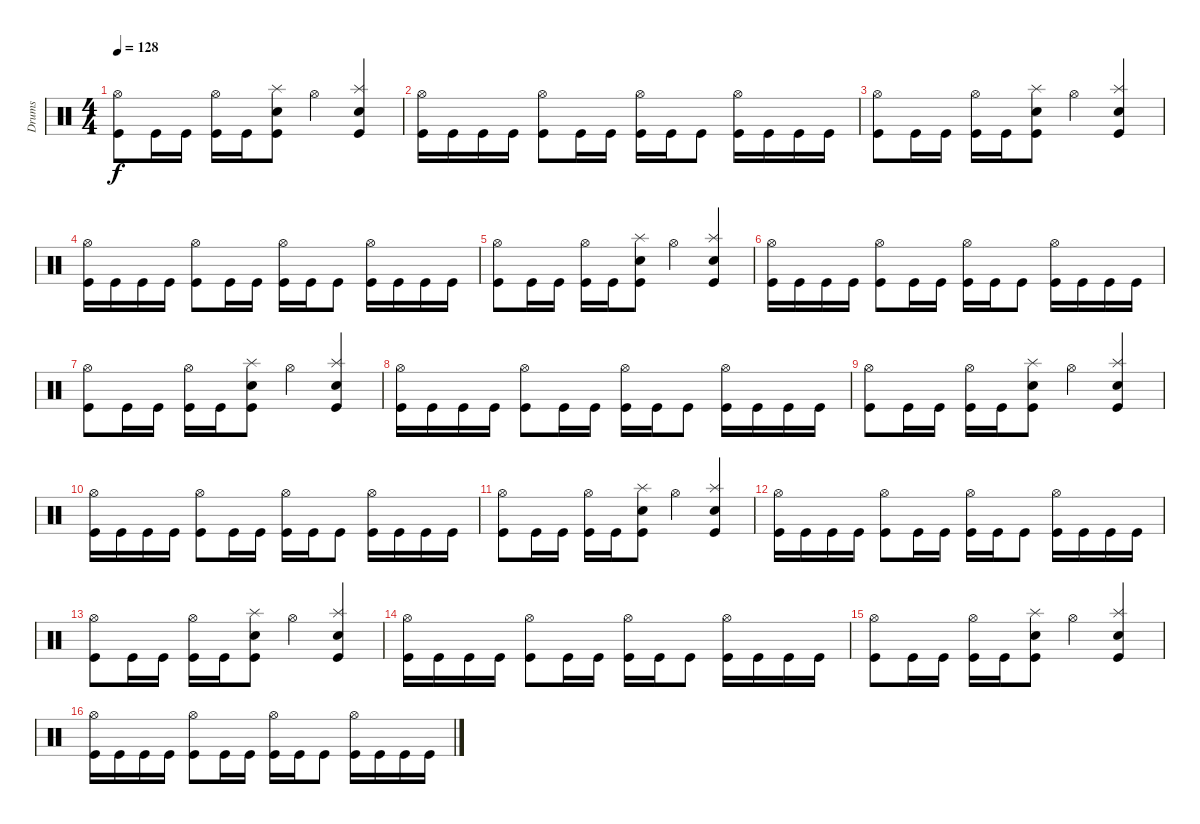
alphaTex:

\track ("Drums" "Drums") {instrument percussion}
\staff {score}
\articulation defaults
\ts (4 4)
\tempo 128
\clef neutral
\ks c
("Hi-Hat (open)" "Kick (hit)").8{dy f} "Kick (hit)".16 "Kick (hit)".16 ("Hi-Hat (open)" "Kick (hit)").16 "Kick (hit)".16 ("Splash (hit)" "Snare (hit) 2" "Kick (hit)").8 "Hi-Hat (open)".4 ("Splash (hit)" "Snare (hit) 2" "Kick (hit)").4 |
("Hi-Hat (open)" "Kick (hit)").16 "Kick (hit)".16 "Kick (hit)".16 "Kick (hit)".16 ("Hi-Hat (open)" "Kick (hit)").8 "Kick (hit)".16 "Kick (hit)".16 ("Hi-Hat (open)" "Kick (hit)").16 "Kick (hit)".16 "Kick (hit)".8 ("Hi-Hat (open)" "Kick (hit)").16 "Kick (hit)".16 "Kick (hit)".16 "Kick (hit)".16 |
("Hi-Hat (open)" "Kick (hit)").8 "Kick (hit)".16 "Kick (hit)".16 ("Hi-Hat (open)" "Kick (hit)").16 "Kick (hit)".16 ("Splash (hit)" "Snare (hit) 2" "Kick (hit)").8 "Hi-Hat (open)".4 ("Splash (hit)" "Snare (hit) 2" "Kick (hit)").4 |
("Hi-Hat (open)" "Kick (hit)").16 "Kick (hit)".16 "Kick (hit)".16 "Kick (hit)".16 ("Hi-Hat (open)" "Kick (hit)").8 "Kick (hit)".16 "Kick (hit)".16 ("Hi-Hat (open)" "Kick (hit)").16 "Kick (hit)".16 "Kick (hit)".8 ("Hi-Hat (open)" "Kick (hit)").16 "Kick (hit)".16 "Kick (hit)".16 "Kick (hit)".16 |
("Hi-Hat (open)" "Kick (hit)").8 "Kick (hit)".16 "Kick (hit)".16 ("Hi-Hat (open)" "Kick (hit)").16 "Kick (hit)".16 ("Splash (hit)" "Snare (hit) 2" "Kick (hit)").8 "Hi-Hat (open)".4 ("Splash (hit)" "Snare (hit) 2" "Kick (hit)").4 |
("Hi-Hat (open)" "Kick (hit)").16 "Kick (hit)".16 "Kick (hit)".16 "Kick (hit)".16 ("Hi-Hat (open)" "Kick (hit)").8 "Kick (hit)".16 "Kick (hit)".16 ("Hi-Hat (open)" "Kick (hit)").16 "Kick (hit)".16 "Kick (hit)".8 ("Hi-Hat (open)" "Kick (hit)").16 "Kick (hit)".16 "Kick (hit)".16 "Kick (hit)".16 |
("Hi-Hat (open)" "Kick (hit)").8 "Kick (hit)".16 "Kick (hit)".16 ("Hi-Hat (open)" "Kick (hit)").16 "Kick (hit)".16 ("Splash (hit)" "Snare (hit) 2" "Kick (hit)").8 "Hi-Hat (open)".4 ("Splash (hit)" "Snare (hit) 2" "Kick (hit)").4 |
("Hi-Hat (open)" "Kick (hit)").16 "Kick (hit)".16 "Kick (hit)".16 "Kick (hit)".16 ("Hi-Hat (open)" "Kick (hit)").8 "Kick (hit)".16 "Kick (hit)".16 ("Hi-Hat (open)" "Kick (hit)").16 "Kick (hit)".16 "Kick (hit)".8 ("Hi-Hat (open)" "Kick (hit)").16 "Kick (hit)".16 "Kick (hit)".16 "Kick (hit)".16 |
("Hi-Hat (open)" "Kick (hit)").8 "Kick (hit)".16 "Kick (hit)".16 ("Hi-Hat (open)" "Kick (hit)").16 "Kick (hit)".16 ("Splash (hit)" "Snare (hit) 2" "Kick (hit)").8 "Hi-Hat (open)".4 ("Splash (hit)" "Snare (hit) 2" "Kick (hit)").4 |
("Hi-Hat (open)" "Kick (hit)").16 "Kick (hit)".16 "Kick (hit)".16 "Kick (hit)".16 ("Hi-Hat (open)" "Kick (hit)").8 "Kick (hit)".16 "Kick (hit)".16 ("Hi-Hat (open)" "Kick (hit)").16 "Kick (hit)".16 "Kick (hit)".8 ("Hi-Hat (open)" "Kick (hit)").16 "Kick (hit)".16 "Kick (hit)".16 "Kick (hit)".16 |
("Hi-Hat (open)" "Kick (hit)").8 "Kick (hit)".16 "Kick (hit)".16 ("Hi-Hat (open)" "Kick (hit)").16 "Kick (hit)".16 ("Splash (hit)" "Snare (hit) 2" "Kick (hit)").8 "Hi-Hat (open)".4 ("Splash (hit)" "Snare (hit) 2" "Kick (hit)").4 |
("Hi-Hat (open)" "Kick (hit)").16 "Kick (hit)".16 "Kick (hit)".16 "Kick (hit)".16 ("Hi-Hat (open)" "Kick (hit)").8 "Kick (hit)".16 "Kick (hit)".16 ("Hi-Hat (open)" "Kick (hit)").16 "Kick (hit)".16 "Kick (hit)".8 ("Hi-Hat (open)" "Kick (hit)").16 "Kick (hit)".16 "Kick (hit)".16 "Kick (hit)".16 |
("Hi-Hat (open)" "Kick (hit)").8 "Kick (hit)".16 "Kick (hit)".16 ("Hi-Hat (open)" "Kick (hit)").16 "Kick (hit)".16 ("Splash (hit)" "Snare (hit) 2" "Kick (hit)").8 "Hi-Hat (open)".4 ("Splash (hit)" "Snare (hit) 2" "Kick (hit)").4 |
("Hi-Hat (open)" "Kick (hit)").16{volume 0} "Kick (hit)".16 "Kick (hit)".16 "Kick (hit)".16 ("Hi-Hat (open)" "Kick (hit)").8 "Kick (hit)".16 "Kick (hit)".16 ("Hi-Hat (open)" "Kick (hit)").16 "Kick (hit)".16 "Kick (hit)".8 ("Hi-Hat (open)" "Kick (hit)").16 "Kick (hit)".16 "Kick (hit)".16 "Kick (hit)".16 |
("Hi-Hat (open)" "Kick (hit)").8 "Kick (hit)".16 "Kick (hit)".16 ("Hi-Hat (open)" "Kick (hit)").16 "Kick (hit)".16 ("Splash (hit)" "Snare (hit) 2" "Kick (hit)").8 "Hi-Hat (open)".4 ("Splash (hit)" "Snare (hit) 2" "Kick (hit)").4 |
("Hi-Hat (open)" "Kick (hit)").16 "Kick (hit)".16 "Kick (hit)".16 "Kick (hit)".16 ("Hi-Hat (open)" "Kick (hit)").8 "Kick (hit)".16 "Kick (hit)".16 ("Hi-Hat (open)" "Kick (hit)").16 "Kick (hit)".16 "Kick (hit)".8 ("Hi-Hat (open)" "Kick (hit)").16 "Kick (hit)".16 "Kick (hit)".16 "Kick (hit)".16
